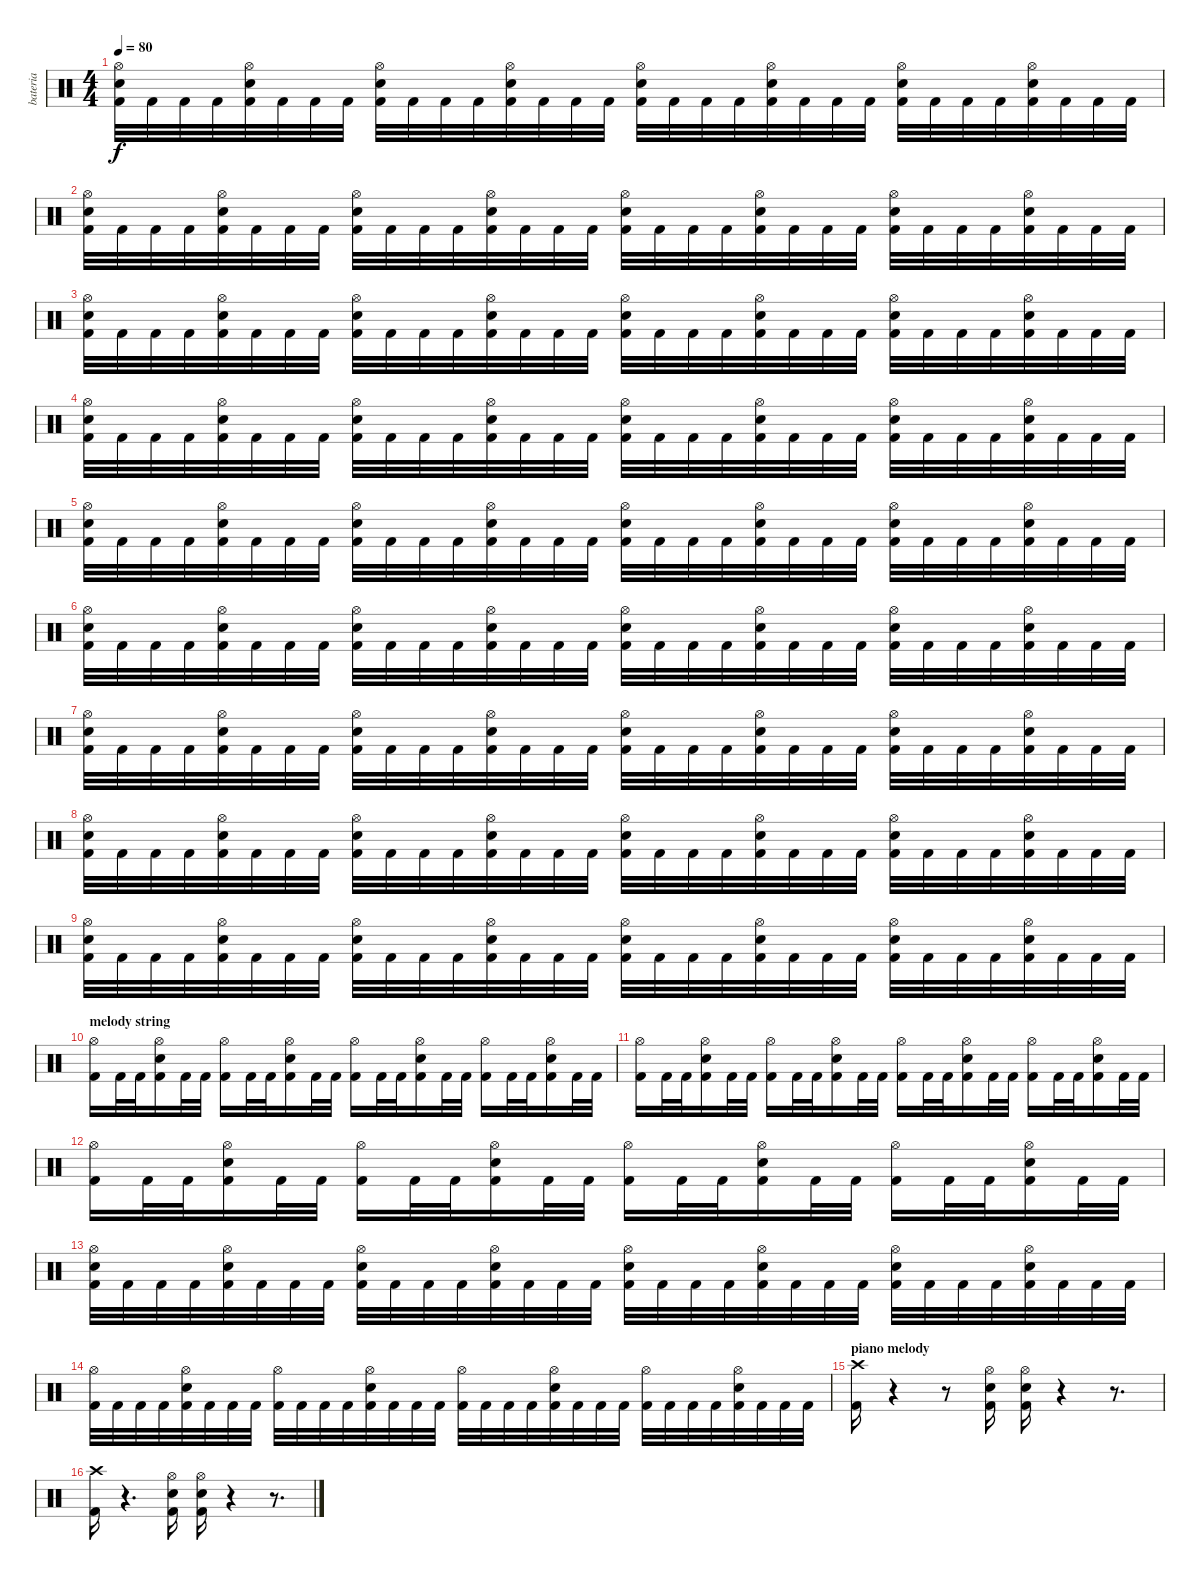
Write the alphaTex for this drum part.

\track ("bateria" "bateria") {instrument percussion}
\staff {score}
\articulation defaults
\ts (4 4)
\tempo 80
\clef neutral
\ks c
("Kick (hit) 2" "Electric Snare (hit)" "Hi-Hat (open)").32{dy f} "Kick (hit) 2".32 "Kick (hit) 2".32 "Kick (hit) 2".32 ("Kick (hit) 2" "Electric Snare (hit)" "Hi-Hat (open)").32 "Kick (hit) 2".32 "Kick (hit) 2".32 "Kick (hit) 2".32 ("Kick (hit) 2" "Electric Snare (hit)" "Hi-Hat (open)").32 "Kick (hit) 2".32 "Kick (hit) 2".32 "Kick (hit) 2".32 ("Kick (hit) 2" "Electric Snare (hit)" "Hi-Hat (open)").32 "Kick (hit) 2".32 "Kick (hit) 2".32 "Kick (hit) 2".32 ("Kick (hit) 2" "Electric Snare (hit)" "Hi-Hat (open)").32 "Kick (hit) 2".32 "Kick (hit) 2".32 "Kick (hit) 2".32 ("Kick (hit) 2" "Electric Snare (hit)" "Hi-Hat (open)").32 "Kick (hit) 2".32 "Kick (hit) 2".32 "Kick (hit) 2".32 ("Kick (hit) 2" "Electric Snare (hit)" "Hi-Hat (open)").32 "Kick (hit) 2".32 "Kick (hit) 2".32 "Kick (hit) 2".32 ("Kick (hit) 2" "Electric Snare (hit)" "Hi-Hat (open)").32 "Kick (hit) 2".32 "Kick (hit) 2".32 "Kick (hit) 2".32 |
("Kick (hit) 2" "Electric Snare (hit)" "Hi-Hat (open)").32 "Kick (hit) 2".32 "Kick (hit) 2".32 "Kick (hit) 2".32 ("Kick (hit) 2" "Electric Snare (hit)" "Hi-Hat (open)").32 "Kick (hit) 2".32 "Kick (hit) 2".32 "Kick (hit) 2".32 ("Kick (hit) 2" "Electric Snare (hit)" "Hi-Hat (open)").32 "Kick (hit) 2".32 "Kick (hit) 2".32 "Kick (hit) 2".32 ("Kick (hit) 2" "Electric Snare (hit)" "Hi-Hat (open)").32 "Kick (hit) 2".32 "Kick (hit) 2".32 "Kick (hit) 2".32 ("Kick (hit) 2" "Electric Snare (hit)" "Hi-Hat (open)").32 "Kick (hit) 2".32 "Kick (hit) 2".32 "Kick (hit) 2".32 ("Kick (hit) 2" "Electric Snare (hit)" "Hi-Hat (open)").32 "Kick (hit) 2".32 "Kick (hit) 2".32 "Kick (hit) 2".32 ("Kick (hit) 2" "Electric Snare (hit)" "Hi-Hat (open)").32 "Kick (hit) 2".32 "Kick (hit) 2".32 "Kick (hit) 2".32 ("Kick (hit) 2" "Electric Snare (hit)" "Hi-Hat (open)").32 "Kick (hit) 2".32 "Kick (hit) 2".32 "Kick (hit) 2".32 |
("Kick (hit) 2" "Electric Snare (hit)" "Hi-Hat (open)").32 "Kick (hit) 2".32 "Kick (hit) 2".32 "Kick (hit) 2".32 ("Kick (hit) 2" "Electric Snare (hit)" "Hi-Hat (open)").32 "Kick (hit) 2".32 "Kick (hit) 2".32 "Kick (hit) 2".32 ("Kick (hit) 2" "Electric Snare (hit)" "Hi-Hat (open)").32 "Kick (hit) 2".32 "Kick (hit) 2".32 "Kick (hit) 2".32 ("Kick (hit) 2" "Electric Snare (hit)" "Hi-Hat (open)").32 "Kick (hit) 2".32 "Kick (hit) 2".32 "Kick (hit) 2".32 ("Kick (hit) 2" "Electric Snare (hit)" "Hi-Hat (open)").32 "Kick (hit) 2".32 "Kick (hit) 2".32 "Kick (hit) 2".32 ("Kick (hit) 2" "Electric Snare (hit)" "Hi-Hat (open)").32 "Kick (hit) 2".32 "Kick (hit) 2".32 "Kick (hit) 2".32 ("Kick (hit) 2" "Electric Snare (hit)" "Hi-Hat (open)").32 "Kick (hit) 2".32 "Kick (hit) 2".32 "Kick (hit) 2".32 ("Kick (hit) 2" "Electric Snare (hit)" "Hi-Hat (open)").32 "Kick (hit) 2".32 "Kick (hit) 2".32 "Kick (hit) 2".32 |
("Kick (hit) 2" "Electric Snare (hit)" "Hi-Hat (open)").32 "Kick (hit) 2".32 "Kick (hit) 2".32 "Kick (hit) 2".32 ("Kick (hit) 2" "Electric Snare (hit)" "Hi-Hat (open)").32 "Kick (hit) 2".32 "Kick (hit) 2".32 "Kick (hit) 2".32 ("Kick (hit) 2" "Electric Snare (hit)" "Hi-Hat (open)").32 "Kick (hit) 2".32 "Kick (hit) 2".32 "Kick (hit) 2".32 ("Kick (hit) 2" "Electric Snare (hit)" "Hi-Hat (open)").32 "Kick (hit) 2".32 "Kick (hit) 2".32 "Kick (hit) 2".32 ("Kick (hit) 2" "Electric Snare (hit)" "Hi-Hat (open)").32 "Kick (hit) 2".32 "Kick (hit) 2".32 "Kick (hit) 2".32 ("Kick (hit) 2" "Electric Snare (hit)" "Hi-Hat (open)").32 "Kick (hit) 2".32 "Kick (hit) 2".32 "Kick (hit) 2".32 ("Kick (hit) 2" "Electric Snare (hit)" "Hi-Hat (open)").32 "Kick (hit) 2".32 "Kick (hit) 2".32 "Kick (hit) 2".32 ("Kick (hit) 2" "Electric Snare (hit)" "Hi-Hat (open)").32 "Kick (hit) 2".32 "Kick (hit) 2".32 "Kick (hit) 2".32 |
("Kick (hit) 2" "Electric Snare (hit)" "Hi-Hat (open)").32 "Kick (hit) 2".32 "Kick (hit) 2".32 "Kick (hit) 2".32 ("Kick (hit) 2" "Electric Snare (hit)" "Hi-Hat (open)").32 "Kick (hit) 2".32 "Kick (hit) 2".32 "Kick (hit) 2".32 ("Kick (hit) 2" "Electric Snare (hit)" "Hi-Hat (open)").32 "Kick (hit) 2".32 "Kick (hit) 2".32 "Kick (hit) 2".32 ("Kick (hit) 2" "Electric Snare (hit)" "Hi-Hat (open)").32 "Kick (hit) 2".32 "Kick (hit) 2".32 "Kick (hit) 2".32 ("Kick (hit) 2" "Electric Snare (hit)" "Hi-Hat (open)").32 "Kick (hit) 2".32 "Kick (hit) 2".32 "Kick (hit) 2".32 ("Kick (hit) 2" "Electric Snare (hit)" "Hi-Hat (open)").32 "Kick (hit) 2".32 "Kick (hit) 2".32 "Kick (hit) 2".32 ("Kick (hit) 2" "Electric Snare (hit)" "Hi-Hat (open)").32 "Kick (hit) 2".32 "Kick (hit) 2".32 "Kick (hit) 2".32 ("Kick (hit) 2" "Electric Snare (hit)" "Hi-Hat (open)").32 "Kick (hit) 2".32 "Kick (hit) 2".32 "Kick (hit) 2".32 |
("Kick (hit) 2" "Electric Snare (hit)" "Hi-Hat (open)").32 "Kick (hit) 2".32 "Kick (hit) 2".32 "Kick (hit) 2".32 ("Kick (hit) 2" "Electric Snare (hit)" "Hi-Hat (open)").32 "Kick (hit) 2".32 "Kick (hit) 2".32 "Kick (hit) 2".32 ("Kick (hit) 2" "Electric Snare (hit)" "Hi-Hat (open)").32 "Kick (hit) 2".32 "Kick (hit) 2".32 "Kick (hit) 2".32 ("Kick (hit) 2" "Electric Snare (hit)" "Hi-Hat (open)").32 "Kick (hit) 2".32 "Kick (hit) 2".32 "Kick (hit) 2".32 ("Kick (hit) 2" "Electric Snare (hit)" "Hi-Hat (open)").32 "Kick (hit) 2".32 "Kick (hit) 2".32 "Kick (hit) 2".32 ("Kick (hit) 2" "Electric Snare (hit)" "Hi-Hat (open)").32 "Kick (hit) 2".32 "Kick (hit) 2".32 "Kick (hit) 2".32 ("Kick (hit) 2" "Electric Snare (hit)" "Hi-Hat (open)").32 "Kick (hit) 2".32 "Kick (hit) 2".32 "Kick (hit) 2".32 ("Kick (hit) 2" "Electric Snare (hit)" "Hi-Hat (open)").32 "Kick (hit) 2".32 "Kick (hit) 2".32 "Kick (hit) 2".32 |
("Kick (hit) 2" "Electric Snare (hit)" "Hi-Hat (open)").32 "Kick (hit) 2".32 "Kick (hit) 2".32 "Kick (hit) 2".32 ("Kick (hit) 2" "Electric Snare (hit)" "Hi-Hat (open)").32 "Kick (hit) 2".32 "Kick (hit) 2".32 "Kick (hit) 2".32 ("Kick (hit) 2" "Electric Snare (hit)" "Hi-Hat (open)").32 "Kick (hit) 2".32 "Kick (hit) 2".32 "Kick (hit) 2".32 ("Kick (hit) 2" "Electric Snare (hit)" "Hi-Hat (open)").32 "Kick (hit) 2".32 "Kick (hit) 2".32 "Kick (hit) 2".32 ("Kick (hit) 2" "Electric Snare (hit)" "Hi-Hat (open)").32 "Kick (hit) 2".32 "Kick (hit) 2".32 "Kick (hit) 2".32 ("Kick (hit) 2" "Electric Snare (hit)" "Hi-Hat (open)").32 "Kick (hit) 2".32 "Kick (hit) 2".32 "Kick (hit) 2".32 ("Kick (hit) 2" "Electric Snare (hit)" "Hi-Hat (open)").32 "Kick (hit) 2".32 "Kick (hit) 2".32 "Kick (hit) 2".32 ("Kick (hit) 2" "Electric Snare (hit)" "Hi-Hat (open)").32 "Kick (hit) 2".32 "Kick (hit) 2".32 "Kick (hit) 2".32 |
("Kick (hit) 2" "Electric Snare (hit)" "Hi-Hat (open)").32 "Kick (hit) 2".32 "Kick (hit) 2".32 "Kick (hit) 2".32 ("Kick (hit) 2" "Electric Snare (hit)" "Hi-Hat (open)").32 "Kick (hit) 2".32 "Kick (hit) 2".32 "Kick (hit) 2".32 ("Kick (hit) 2" "Electric Snare (hit)" "Hi-Hat (open)").32 "Kick (hit) 2".32 "Kick (hit) 2".32 "Kick (hit) 2".32 ("Kick (hit) 2" "Electric Snare (hit)" "Hi-Hat (open)").32 "Kick (hit) 2".32 "Kick (hit) 2".32 "Kick (hit) 2".32 ("Kick (hit) 2" "Electric Snare (hit)" "Hi-Hat (open)").32 "Kick (hit) 2".32 "Kick (hit) 2".32 "Kick (hit) 2".32 ("Kick (hit) 2" "Electric Snare (hit)" "Hi-Hat (open)").32 "Kick (hit) 2".32 "Kick (hit) 2".32 "Kick (hit) 2".32 ("Kick (hit) 2" "Electric Snare (hit)" "Hi-Hat (open)").32 "Kick (hit) 2".32 "Kick (hit) 2".32 "Kick (hit) 2".32 ("Kick (hit) 2" "Electric Snare (hit)" "Hi-Hat (open)").32 "Kick (hit) 2".32 "Kick (hit) 2".32 "Kick (hit) 2".32 |
("Kick (hit) 2" "Electric Snare (hit)" "Hi-Hat (open)").32 "Kick (hit) 2".32 "Kick (hit) 2".32 "Kick (hit) 2".32 ("Kick (hit) 2" "Electric Snare (hit)" "Hi-Hat (open)").32 "Kick (hit) 2".32 "Kick (hit) 2".32 "Kick (hit) 2".32 ("Kick (hit) 2" "Electric Snare (hit)" "Hi-Hat (open)").32 "Kick (hit) 2".32 "Kick (hit) 2".32 "Kick (hit) 2".32 ("Kick (hit) 2" "Electric Snare (hit)" "Hi-Hat (open)").32 "Kick (hit) 2".32 "Kick (hit) 2".32 "Kick (hit) 2".32 ("Kick (hit) 2" "Electric Snare (hit)" "Hi-Hat (open)").32 "Kick (hit) 2".32 "Kick (hit) 2".32 "Kick (hit) 2".32 ("Kick (hit) 2" "Electric Snare (hit)" "Hi-Hat (open)").32 "Kick (hit) 2".32 "Kick (hit) 2".32 "Kick (hit) 2".32 ("Kick (hit) 2" "Electric Snare (hit)" "Hi-Hat (open)").32 "Kick (hit) 2".32 "Kick (hit) 2".32 "Kick (hit) 2".32 ("Kick (hit) 2" "Electric Snare (hit)" "Hi-Hat (open)").32 "Kick (hit) 2".32 "Kick (hit) 2".32 "Kick (hit) 2".32 |
\section ("" "melody string")
("Kick (hit) 2" "Hi-Hat (open)").16 "Kick (hit) 2".32 "Kick (hit) 2".32 ("Kick (hit) 2" "Electric Snare (hit)" "Hi-Hat (open)").16 "Kick (hit) 2".32 "Kick (hit) 2".32 ("Kick (hit) 2" "Hi-Hat (open)").16 "Kick (hit) 2".32 "Kick (hit) 2".32 ("Kick (hit) 2" "Electric Snare (hit)" "Hi-Hat (open)").16 "Kick (hit) 2".32 "Kick (hit) 2".32 ("Kick (hit) 2" "Hi-Hat (open)").16 "Kick (hit) 2".32 "Kick (hit) 2".32 ("Kick (hit) 2" "Electric Snare (hit)" "Hi-Hat (open)").16 "Kick (hit) 2".32 "Kick (hit) 2".32 ("Kick (hit) 2" "Hi-Hat (open)").16 "Kick (hit) 2".32 "Kick (hit) 2".32 ("Kick (hit) 2" "Electric Snare (hit)" "Hi-Hat (open)").16 "Kick (hit) 2".32 "Kick (hit) 2".32 |
("Kick (hit) 2" "Hi-Hat (open)").16 "Kick (hit) 2".32 "Kick (hit) 2".32 ("Kick (hit) 2" "Electric Snare (hit)" "Hi-Hat (open)").16 "Kick (hit) 2".32 "Kick (hit) 2".32 ("Kick (hit) 2" "Hi-Hat (open)").16 "Kick (hit) 2".32 "Kick (hit) 2".32 ("Kick (hit) 2" "Electric Snare (hit)" "Hi-Hat (open)").16 "Kick (hit) 2".32 "Kick (hit) 2".32 ("Kick (hit) 2" "Hi-Hat (open)").16 "Kick (hit) 2".32 "Kick (hit) 2".32 ("Kick (hit) 2" "Electric Snare (hit)" "Hi-Hat (open)").16 "Kick (hit) 2".32 "Kick (hit) 2".32 ("Kick (hit) 2" "Hi-Hat (open)").16 "Kick (hit) 2".32 "Kick (hit) 2".32 ("Kick (hit) 2" "Electric Snare (hit)" "Hi-Hat (open)").16 "Kick (hit) 2".32 "Kick (hit) 2".32 |
("Kick (hit) 2" "Hi-Hat (open)").16 "Kick (hit) 2".32 "Kick (hit) 2".32 ("Kick (hit) 2" "Electric Snare (hit)" "Hi-Hat (open)").16 "Kick (hit) 2".32 "Kick (hit) 2".32 ("Kick (hit) 2" "Hi-Hat (open)").16 "Kick (hit) 2".32 "Kick (hit) 2".32 ("Kick (hit) 2" "Electric Snare (hit)" "Hi-Hat (open)").16 "Kick (hit) 2".32 "Kick (hit) 2".32 ("Kick (hit) 2" "Hi-Hat (open)").16 "Kick (hit) 2".32 "Kick (hit) 2".32 ("Kick (hit) 2" "Electric Snare (hit)" "Hi-Hat (open)").16 "Kick (hit) 2".32 "Kick (hit) 2".32 ("Kick (hit) 2" "Hi-Hat (open)").16 "Kick (hit) 2".32 "Kick (hit) 2".32 ("Kick (hit) 2" "Electric Snare (hit)" "Hi-Hat (open)").16 "Kick (hit) 2".32 "Kick (hit) 2".32 |
("Kick (hit) 2" "Electric Snare (hit)" "Hi-Hat (open)").32 "Kick (hit) 2".32 "Kick (hit) 2".32 "Kick (hit) 2".32 ("Kick (hit) 2" "Electric Snare (hit)" "Hi-Hat (open)").32 "Kick (hit) 2".32 "Kick (hit) 2".32 "Kick (hit) 2".32 ("Kick (hit) 2" "Electric Snare (hit)" "Hi-Hat (open)").32 "Kick (hit) 2".32 "Kick (hit) 2".32 "Kick (hit) 2".32 ("Kick (hit) 2" "Electric Snare (hit)" "Hi-Hat (open)").32 "Kick (hit) 2".32 "Kick (hit) 2".32 "Kick (hit) 2".32 ("Kick (hit) 2" "Electric Snare (hit)" "Hi-Hat (open)").32 "Kick (hit) 2".32 "Kick (hit) 2".32 "Kick (hit) 2".32 ("Kick (hit) 2" "Electric Snare (hit)" "Hi-Hat (open)").32 "Kick (hit) 2".32 "Kick (hit) 2".32 "Kick (hit) 2".32 ("Kick (hit) 2" "Electric Snare (hit)" "Hi-Hat (open)").32 "Kick (hit) 2".32 "Kick (hit) 2".32 "Kick (hit) 2".32 ("Kick (hit) 2" "Electric Snare (hit)" "Hi-Hat (open)").32 "Kick (hit) 2".32 "Kick (hit) 2".32 "Kick (hit) 2".32 |
("Kick (hit) 2" "Hi-Hat (open)").32 "Kick (hit) 2".32 "Kick (hit) 2".32 "Kick (hit) 2".32 ("Kick (hit) 2" "Electric Snare (hit)" "Hi-Hat (open)").32 "Kick (hit) 2".32 "Kick (hit) 2".32 "Kick (hit) 2".32 ("Kick (hit) 2" "Hi-Hat (open)").32 "Kick (hit) 2".32 "Kick (hit) 2".32 "Kick (hit) 2".32 ("Kick (hit) 2" "Electric Snare (hit)" "Hi-Hat (open)").32 "Kick (hit) 2".32 "Kick (hit) 2".32 "Kick (hit) 2".32 ("Kick (hit) 2" "Hi-Hat (open)").32 "Kick (hit) 2".32 "Kick (hit) 2".32 "Kick (hit) 2".32 ("Kick (hit) 2" "Electric Snare (hit)" "Hi-Hat (open)").32 "Kick (hit) 2".32 "Kick (hit) 2".32 "Kick (hit) 2".32 ("Kick (hit) 2" "Hi-Hat (open)").32 "Kick (hit) 2".32 "Kick (hit) 2".32 "Kick (hit) 2".32 ("Kick (hit) 2" "Electric Snare (hit)" "Hi-Hat (open)").32 "Kick (hit) 2".32 "Kick (hit) 2".32 "Kick (hit) 2".32 |
\section ("" "piano melody")
("Kick (hit) 2" "Crash high (hit)").16 r.4 r.8 ("Kick (hit) 2" "Electric Snare (hit)" "Hi-Hat (open)").16 ("Kick (hit) 2" "Electric Snare (hit)" "Hi-Hat (open)").16 r.4 r.8{d} |
("Kick (hit) 2" "Crash high (hit)").16 r.4{d} ("Kick (hit) 2" "Electric Snare (hit)" "Hi-Hat (open)").16 ("Kick (hit) 2" "Electric Snare (hit)" "Hi-Hat (open)").16 r.4 r.8{d}
